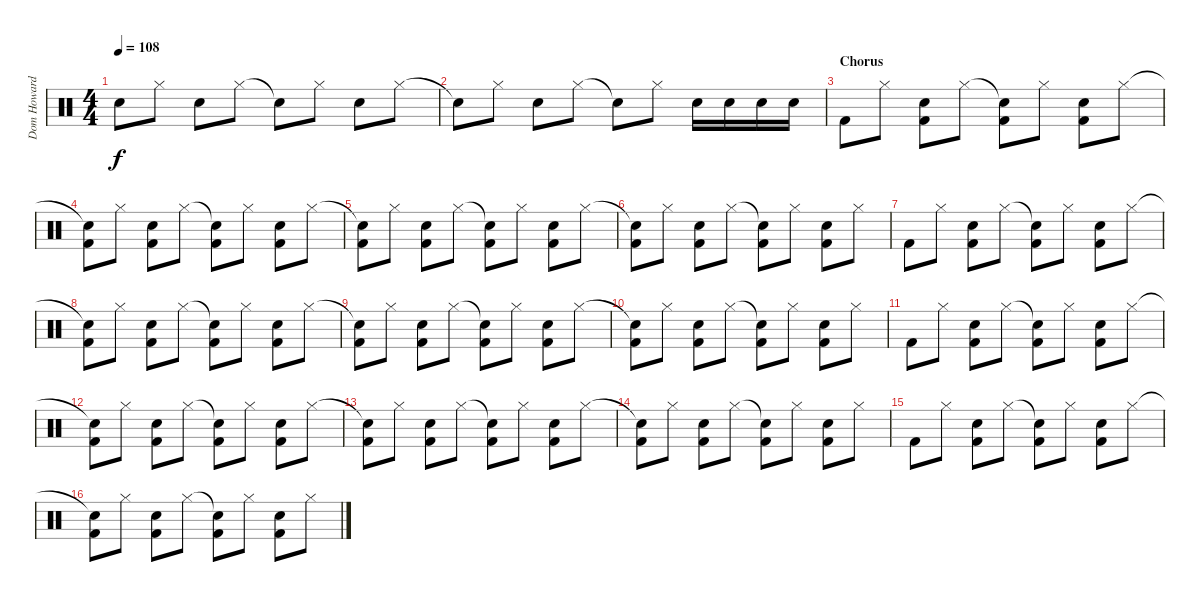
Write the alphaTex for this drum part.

\track ("Dom Howard" "Dom Howard") {instrument percussion}
\staff {score}
\articulation defaults
\ts (4 4)
\tempo 108
\clef neutral
\ks c "Snare (hit)"{t}.8{dy f} "Hi-Hat (closed)".8 "Electric Snare (hit)".8 "Hi-Hat (closed)".8 "Snare (hit)"{t}.8 "Hi-Hat (closed)".8 "Electric Snare (hit)".8 "Hi-Hat (closed)".8
|
"Snare (hit)"{t}.8 "Hi-Hat (closed)".8 "Electric Snare (hit)".8 "Hi-Hat (closed)".8 "Snare (hit)"{t}.8 "Hi-Hat (closed)".8 "Electric Snare (hit)".16 "Electric Snare (hit)".16 "Electric Snare (hit)".16 "Electric Snare (hit)".16 |
\section ("" "Chorus")
"Kick (hit) 2".8 "Hi-Hat (closed)".8 ("Electric Snare (hit)" "Kick (hit) 2").8 "Hi-Hat (closed)".8 ("Snare (hit)"{t} "Kick (hit) 2").8 "Hi-Hat (closed)".8 ("Electric Snare (hit)" "Kick (hit) 2").8 "Hi-Hat (closed)".8 |
("Snare (hit)"{t} "Kick (hit) 2").8 "Hi-Hat (closed)".8 ("Electric Snare (hit)" "Kick (hit) 2").8 "Hi-Hat (closed)".8 ("Snare (hit)"{t} "Kick (hit) 2").8 "Hi-Hat (closed)".8 ("Electric Snare (hit)" "Kick (hit) 2").8 "Hi-Hat (closed)".8 |
("Snare (hit)"{t} "Kick (hit) 2").8 "Hi-Hat (closed)".8 ("Electric Snare (hit)" "Kick (hit) 2").8 "Hi-Hat (closed)".8 ("Snare (hit)"{t} "Kick (hit) 2").8 "Hi-Hat (closed)".8 ("Electric Snare (hit)" "Kick (hit) 2").8 "Hi-Hat (closed)".8 |
("Snare (hit)"{t} "Kick (hit) 2").8 "Hi-Hat (closed)".8 ("Electric Snare (hit)" "Kick (hit) 2").8 "Hi-Hat (closed)".8 ("Snare (hit)"{t} "Kick (hit) 2").8 "Hi-Hat (closed)".8 ("Electric Snare (hit)" "Kick (hit) 2").8 "Hi-Hat (closed)".8 |
"Kick (hit) 2".8 "Hi-Hat (closed)".8 ("Electric Snare (hit)" "Kick (hit) 2").8 "Hi-Hat (closed)".8 ("Snare (hit)"{t} "Kick (hit) 2").8 "Hi-Hat (closed)".8 ("Electric Snare (hit)" "Kick (hit) 2").8 "Hi-Hat (closed)".8 |
("Snare (hit)"{t} "Kick (hit) 2").8 "Hi-Hat (closed)".8 ("Electric Snare (hit)" "Kick (hit) 2").8 "Hi-Hat (closed)".8 ("Snare (hit)"{t} "Kick (hit) 2").8 "Hi-Hat (closed)".8 ("Electric Snare (hit)" "Kick (hit) 2").8 "Hi-Hat (closed)".8 |
("Snare (hit)"{t} "Kick (hit) 2").8 "Hi-Hat (closed)".8 ("Electric Snare (hit)" "Kick (hit) 2").8 "Hi-Hat (closed)".8 ("Snare (hit)"{t} "Kick (hit) 2").8 "Hi-Hat (closed)".8 ("Electric Snare (hit)" "Kick (hit) 2").8 "Hi-Hat (closed)".8 |
("Snare (hit)"{t} "Kick (hit) 2").8 "Hi-Hat (closed)".8 ("Electric Snare (hit)" "Kick (hit) 2").8 "Hi-Hat (closed)".8 ("Snare (hit)"{t} "Kick (hit) 2").8 "Hi-Hat (closed)".8 ("Electric Snare (hit)" "Kick (hit) 2").8 "Hi-Hat (closed)".8 |
"Kick (hit) 2".8 "Hi-Hat (closed)".8 ("Electric Snare (hit)" "Kick (hit) 2").8 "Hi-Hat (closed)".8 ("Snare (hit)"{t} "Kick (hit) 2").8 "Hi-Hat (closed)".8 ("Electric Snare (hit)" "Kick (hit) 2").8 "Hi-Hat (closed)".8 |
("Snare (hit)"{t} "Kick (hit) 2").8 "Hi-Hat (closed)".8 ("Electric Snare (hit)" "Kick (hit) 2").8 "Hi-Hat (closed)".8 ("Snare (hit)"{t} "Kick (hit) 2").8 "Hi-Hat (closed)".8 ("Electric Snare (hit)" "Kick (hit) 2").8 "Hi-Hat (closed)".8 |
("Snare (hit)"{t} "Kick (hit) 2").8 "Hi-Hat (closed)".8 ("Electric Snare (hit)" "Kick (hit) 2").8 "Hi-Hat (closed)".8 ("Snare (hit)"{t} "Kick (hit) 2").8 "Hi-Hat (closed)".8 ("Electric Snare (hit)" "Kick (hit) 2").8 "Hi-Hat (closed)".8 |
("Snare (hit)"{t} "Kick (hit) 2").8 "Hi-Hat (closed)".8 ("Electric Snare (hit)" "Kick (hit) 2").8 "Hi-Hat (closed)".8 ("Snare (hit)"{t} "Kick (hit) 2").8 "Hi-Hat (closed)".8 ("Electric Snare (hit)" "Kick (hit) 2").8 "Hi-Hat (closed)".8 |
"Kick (hit) 2".8 "Hi-Hat (closed)".8 ("Electric Snare (hit)" "Kick (hit) 2").8 "Hi-Hat (closed)".8 ("Snare (hit)"{t} "Kick (hit) 2").8 "Hi-Hat (closed)".8 ("Electric Snare (hit)" "Kick (hit) 2").8 "Hi-Hat (closed)".8 |
("Snare (hit)"{t} "Kick (hit) 2").8 "Hi-Hat (closed)".8 ("Electric Snare (hit)" "Kick (hit) 2").8 "Hi-Hat (closed)".8 ("Snare (hit)"{t} "Kick (hit) 2").8 "Hi-Hat (closed)".8 ("Electric Snare (hit)" "Kick (hit) 2").8 "Hi-Hat (closed)".8
